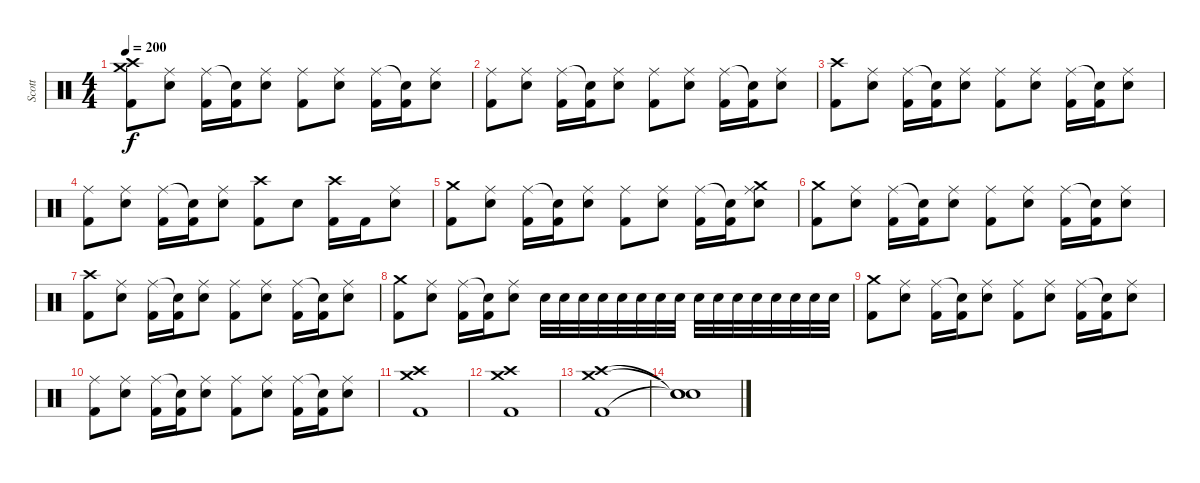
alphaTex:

\track ("Scott" "Scott") {instrument percussion}
\staff {score}
\articulation defaults
\ts (4 4)
\tempo 200
\clef neutral
\ks c
("Crash medium (hit)" "Crash high (hit)" "Kick (hit) 2").8{dy f} ("Ride (middle)" "Snare (hit) 2").8 ("Ride (middle)" "Kick (hit) 2").16 ("Snare (hit)"{t} "Kick (hit) 2").16 ("Ride (middle)" "Snare (hit) 2").8 ("Ride (middle)" "Kick (hit) 2").8 ("Ride (middle)" "Snare (hit) 2").8 ("Ride (middle)" "Kick (hit) 2").16 ("Snare (hit)"{t} "Kick (hit) 2").16 ("Ride (middle)" "Snare (hit) 2").8 |
("Ride (middle)" "Kick (hit) 2").8 ("Ride (middle)" "Snare (hit) 2").8 ("Ride (middle)" "Kick (hit) 2").16 ("Snare (hit)"{t} "Kick (hit) 2").16 ("Ride (middle)" "Snare (hit) 2").8 ("Ride (middle)" "Kick (hit) 2").8 ("Ride (middle)" "Snare (hit) 2").8 ("Ride (middle)" "Kick (hit) 2").16 ("Snare (hit)"{t} "Kick (hit) 2").16 ("Ride (middle)" "Snare (hit) 2").8 |
("Crash high (hit)" "Kick (hit) 2").8 ("Ride (middle)" "Snare (hit) 2").8 ("Ride (middle)" "Kick (hit) 2").16 ("Snare (hit)"{t} "Kick (hit) 2").16 ("Ride (middle)" "Snare (hit) 2").8 ("Ride (middle)" "Kick (hit) 2").8 ("Ride (middle)" "Snare (hit) 2").8 ("Ride (middle)" "Kick (hit) 2").16 ("Snare (hit)"{t} "Kick (hit) 2").16 ("Ride (middle)" "Snare (hit) 2").8 |
("Ride (middle)" "Kick (hit) 2").8 ("Ride (middle)" "Snare (hit) 2").8 ("Ride (middle)" "Kick (hit) 2").16 ("Snare (hit)"{t} "Kick (hit) 2").16 ("Ride (middle)" "Snare (hit) 2").8 ("Crash high (hit)" "Kick (hit) 2").8 "Snare (hit) 2".8 ("Crash high (hit)" "Kick (hit) 2").16 "Kick (hit) 2".16 ("Ride (middle)" "Snare (hit) 2").8 |
("Crash medium (hit)" "Kick (hit) 2").8 ("Ride (middle)" "Snare (hit) 2").8 ("Ride (middle)" "Kick (hit) 2").16 ("Snare (hit)"{t} "Kick (hit) 2").16 ("Ride (middle)" "Snare (hit) 2").8 ("Ride (middle)" "Kick (hit) 2").8 ("Ride (middle)" "Snare (hit) 2").8 ("Ride (middle)" "Kick (hit) 2").16 ("Snare (hit)"{t} "Kick (hit) 2").16 ("Crash medium (hit)" "Ride (middle)" "Snare (hit) 2").8 |
("Crash medium (hit)" "Kick (hit) 2").8 ("Ride (middle)" "Snare (hit) 2").8 ("Ride (middle)" "Kick (hit) 2").16 ("Snare (hit)"{t} "Kick (hit) 2").16 ("Ride (middle)" "Snare (hit) 2").8 ("Ride (middle)" "Kick (hit) 2").8 ("Ride (middle)" "Snare (hit) 2").8 ("Ride (middle)" "Kick (hit) 2").16 ("Snare (hit)"{t} "Kick (hit) 2").16 ("Ride (middle)" "Snare (hit) 2").8 |
("Crash high (hit)" "Kick (hit) 2").8 ("Ride (middle)" "Snare (hit) 2").8 ("Ride (middle)" "Kick (hit) 2").16 ("Snare (hit)"{t} "Kick (hit) 2").16 ("Ride (middle)" "Snare (hit) 2").8 ("Ride (middle)" "Kick (hit) 2").8 ("Ride (middle)" "Snare (hit) 2").8 ("Ride (middle)" "Kick (hit) 2").16 ("Snare (hit)"{t} "Kick (hit) 2").16 ("Ride (middle)" "Snare (hit) 2").8 |
("Crash medium (hit)" "Kick (hit) 2").8 ("Ride (middle)" "Snare (hit) 2").8 ("Ride (middle)" "Kick (hit) 2").16 ("Snare (hit)"{t} "Kick (hit) 2").16 ("Ride (middle)" "Snare (hit) 2").8 "Snare (hit) 2".32 "Snare (hit) 2".32 "Snare (hit) 2".32 "Snare (hit) 2".32 "Snare (hit) 2".32 "Snare (hit) 2".32 "Snare (hit) 2".32 "Snare (hit) 2".32 "Snare (hit) 2".32 "Snare (hit) 2".32 "Snare (hit) 2".32 "Snare (hit) 2".32 "Snare (hit) 2".32 "Snare (hit) 2".32 "Snare (hit) 2".32 "Snare (hit) 2".32 |
("Crash medium (hit)" "Kick (hit) 2").8 ("Ride (middle)" "Snare (hit) 2").8 ("Ride (middle)" "Kick (hit) 2").16 ("Snare (hit)"{t} "Kick (hit) 2").16 ("Ride (middle)" "Snare (hit) 2").8 ("Ride (middle)" "Kick (hit) 2").8 ("Ride (middle)" "Snare (hit) 2").8 ("Ride (middle)" "Kick (hit) 2").16 ("Snare (hit)"{t} "Kick (hit) 2").16 ("Ride (middle)" "Snare (hit) 2").8 |
("Ride (middle)" "Kick (hit) 2").8 ("Ride (middle)" "Snare (hit) 2").8 ("Ride (middle)" "Kick (hit) 2").16 ("Snare (hit)"{t} "Kick (hit) 2").16 ("Ride (middle)" "Snare (hit) 2").8 ("Ride (middle)" "Kick (hit) 2").8 ("Ride (middle)" "Snare (hit) 2").8 ("Ride (middle)" "Kick (hit) 2").16 ("Snare (hit)"{t} "Kick (hit) 2").16 ("Ride (middle)" "Snare (hit) 2").8 |
("Crash medium (hit)" "Crash high (hit)" "Kick (hit) 2").1 |
("Crash medium (hit)" "Crash high (hit)" "Kick (hit) 2").1 |
("Crash medium (hit)" "Crash high (hit)" "Kick (hit) 2").1 |
("Snare (hit)"{t} "Snare (hit)"{t} "Snare (hit)"{t}).1
